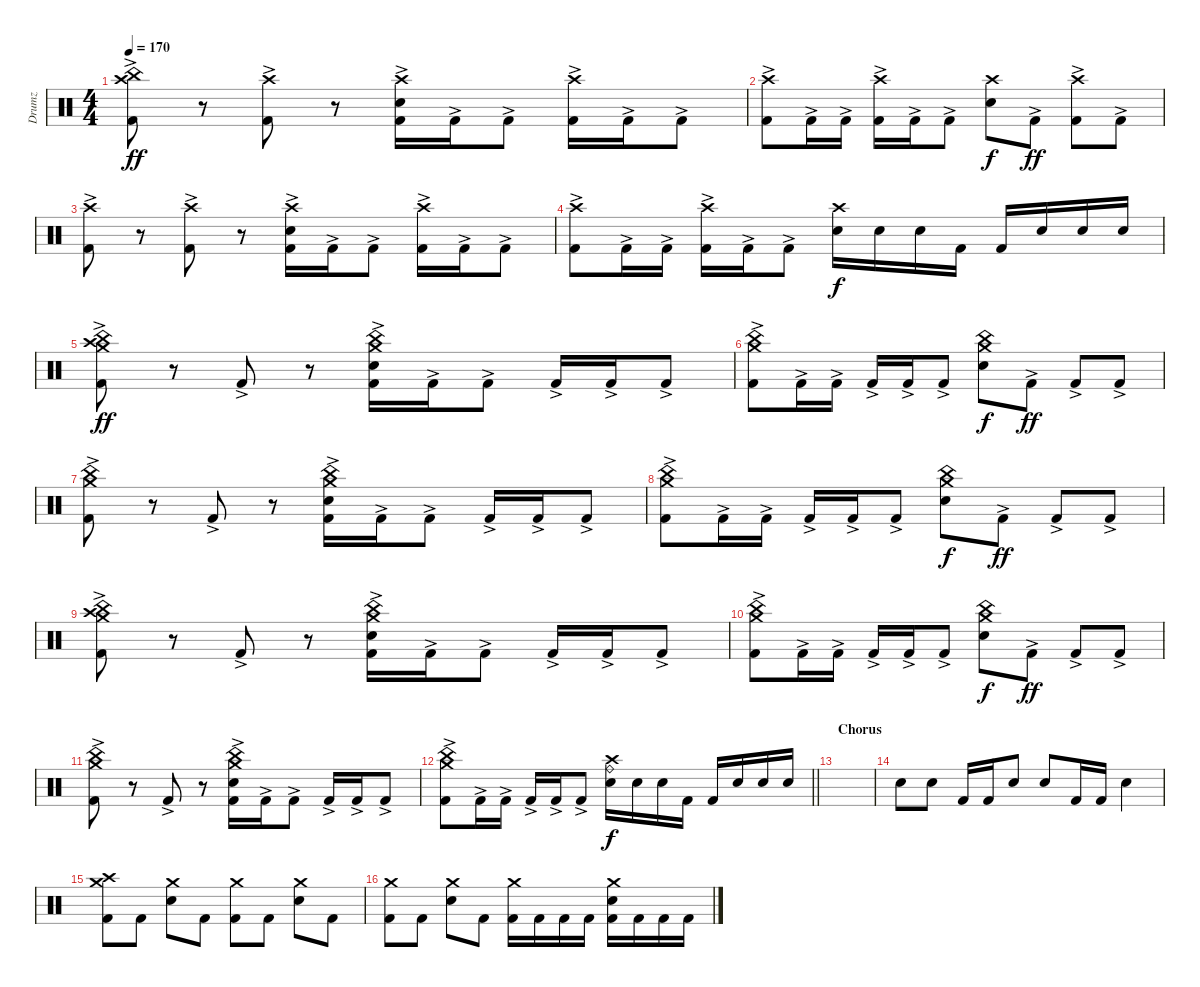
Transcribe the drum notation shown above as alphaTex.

\track ("Drumz" "Drumz") {instrument percussion}
\staff {score}
\articulation defaults
\ts (4 4)
\tempo 170
\clef neutral
\ks c
("China (hit)" "Crash high (hit)" "Kick (hit) 2"{ac}).8{dy ff} r.8 ("Crash high (hit)" "Kick (hit) 2"{ac}).8 r.8 ("Kick (hit) 2"{ac} "Crash high (hit)" "Electric Snare (hit)").16 "Kick (hit) 2"{ac}.16 "Kick (hit) 2"{ac}.8 ("Kick (hit) 2"{ac} "Crash high (hit)").16 "Kick (hit) 2"{ac}.16 "Kick (hit) 2"{ac}.8 |
("Kick (hit) 2"{ac} "Crash high (hit)").8 "Kick (hit) 2"{ac}.16 "Kick (hit) 2"{ac}.16 ("Kick (hit) 2"{ac} "Crash high (hit)").16 "Kick (hit) 2"{ac}.16 "Kick (hit) 2"{ac}.8 ("Crash high (hit)" "Electric Snare (hit)").8{dy f} "Kick (hit) 2"{ac}.8{dy ff} ("Kick (hit) 2"{ac} "Crash high (hit)").8 "Kick (hit) 2"{ac}.8 |
("Crash high (hit)" "Kick (hit) 2"{ac}).8 r.8 ("Crash high (hit)" "Kick (hit) 2"{ac}).8 r.8 ("Kick (hit) 2"{ac} "Crash high (hit)" "Electric Snare (hit)").16 "Kick (hit) 2"{ac}.16 "Kick (hit) 2"{ac}.8 ("Kick (hit) 2"{ac} "Crash high (hit)").16 "Kick (hit) 2"{ac}.16 "Kick (hit) 2"{ac}.8 |
("Kick (hit) 2"{ac} "Crash high (hit)").8 "Kick (hit) 2"{ac}.16 "Kick (hit) 2"{ac}.16 ("Kick (hit) 2"{ac} "Crash high (hit)").16 "Kick (hit) 2"{ac}.16 "Kick (hit) 2"{ac}.8 ("Crash high (hit)" "Electric Snare (hit)").16{dy f} "Electric Snare (hit)".16 "Electric Snare (hit)".16 "Kick (hit) 2".16 "Kick (hit) 2".16 "Electric Snare (hit)".16 "Electric Snare (hit)".16 "Electric Snare (hit)".16 |
("Crash medium (hit)" "Crash high (hit)" "China (hit)" "Kick (hit) 2"{ac}).8{dy ff} r.8 "Kick (hit) 2"{ac}.8 r.8 ("Kick (hit) 2"{ac} "Crash medium (hit)" "Electric Snare (hit)" "China (hit)").16 "Kick (hit) 2"{ac}.16 "Kick (hit) 2"{ac}.8 "Kick (hit) 2"{ac}.16 "Kick (hit) 2"{ac}.16 "Kick (hit) 2"{ac}.8 |
("Kick (hit) 2"{ac} "Crash medium (hit)" "China (hit)").8 "Kick (hit) 2"{ac}.16 "Kick (hit) 2"{ac}.16 "Kick (hit) 2"{ac}.16 "Kick (hit) 2"{ac}.16 "Kick (hit) 2"{ac}.8 ("China (hit)" "Electric Snare (hit)" "Crash medium (hit)").8{dy f} "Kick (hit) 2"{ac}.8{dy ff} "Kick (hit) 2"{ac}.8 "Kick (hit) 2"{ac}.8 |
("Crash medium (hit)" "China (hit)" "Kick (hit) 2"{ac}).8 r.8 "Kick (hit) 2"{ac}.8 r.8 ("Kick (hit) 2"{ac} "China (hit)" "Electric Snare (hit)" "Crash medium (hit)").16 "Kick (hit) 2"{ac}.16 "Kick (hit) 2"{ac}.8 "Kick (hit) 2"{ac}.16 "Kick (hit) 2"{ac}.16 "Kick (hit) 2"{ac}.8 |
("Kick (hit) 2"{ac} "Crash medium (hit)" "China (hit)").8 "Kick (hit) 2"{ac}.16 "Kick (hit) 2"{ac}.16 "Kick (hit) 2"{ac}.16 "Kick (hit) 2"{ac}.16 "Kick (hit) 2"{ac}.8 ("China (hit)" "Electric Snare (hit)" "Crash medium (hit)").8{dy f} "Kick (hit) 2"{ac}.8{dy ff} "Kick (hit) 2"{ac}.8 "Kick (hit) 2"{ac}.8 |
("China (hit)" "Crash high (hit)" "Crash medium (hit)" "Kick (hit) 2"{ac}).8 r.8 "Kick (hit) 2"{ac}.8 r.8 ("Kick (hit) 2"{ac} "Crash medium (hit)" "Electric Snare (hit)" "China (hit)").16 "Kick (hit) 2"{ac}.16 "Kick (hit) 2"{ac}.8 "Kick (hit) 2"{ac}.16 "Kick (hit) 2"{ac}.16 "Kick (hit) 2"{ac}.8 |
("Kick (hit) 2"{ac} "China (hit)" "Crash medium (hit)").8 "Kick (hit) 2"{ac}.16 "Kick (hit) 2"{ac}.16 "Kick (hit) 2"{ac}.16 "Kick (hit) 2"{ac}.16 "Kick (hit) 2"{ac}.8 ("Crash medium (hit)" "Electric Snare (hit)" "China (hit)").8{dy f} "Kick (hit) 2"{ac}.8{dy ff} "Kick (hit) 2"{ac}.8 "Kick (hit) 2"{ac}.8 |
("China (hit)" "Crash medium (hit)" "Kick (hit) 2"{ac}).8 r.8 "Kick (hit) 2"{ac}.8 r.8 ("Kick (hit) 2"{ac} "Crash medium (hit)" "Electric Snare (hit)" "China (hit)").16 "Kick (hit) 2"{ac}.16 "Kick (hit) 2"{ac}.8 "Kick (hit) 2"{ac}.16 "Kick (hit) 2"{ac}.16 "Kick (hit) 2"{ac}.8 |
\barLineRight lightlight
("Kick (hit) 2"{ac} "China (hit)" "Crash medium (hit)").8 "Kick (hit) 2"{ac}.16 "Kick (hit) 2"{ac}.16 "Kick (hit) 2"{ac}.16 "Kick (hit) 2"{ac}.16 "Kick (hit) 2"{ac}.8 ("Crash high (hit)" "Electric Snare (hit)" "Ride (bell)").16{dy f} "Electric Snare (hit)".16 "Electric Snare (hit)".16 "Kick (hit) 2".16 "Kick (hit) 2".16 "Electric Snare (hit)".16 "Electric Snare (hit)".16 "Electric Snare (hit)".16 |
\section ("" "Chorus")
|
"Electric Snare (hit)".8 "Electric Snare (hit)".8 "Kick (hit) 2".16 "Kick (hit) 2".16 "Electric Snare (hit)".8 "Electric Snare (hit)".8 "Kick (hit) 2".16 "Kick (hit) 2".16 "Electric Snare (hit)".4 |
("Crash high (hit)" "Kick (hit) 2" "Crash medium (hit)").8 "Kick (hit) 2".8 ("Electric Snare (hit)" "Crash medium (hit)").8 "Kick (hit) 2".8 ("Kick (hit) 2" "Crash medium (hit)").8 "Kick (hit) 2".8 ("Electric Snare (hit)" "Crash medium (hit)").8 "Kick (hit) 2".8 |
("Kick (hit) 2" "Crash medium (hit)").8 "Kick (hit) 2".8 ("Electric Snare (hit)" "Crash medium (hit)").8 "Kick (hit) 2".8 ("Kick (hit) 2" "Crash medium (hit)").16 "Kick (hit) 2".16 "Kick (hit) 2".16 "Kick (hit) 2".16 ("Electric Snare (hit)" "Crash medium (hit)" "Kick (hit) 2").16 "Kick (hit) 2".16 "Kick (hit) 2".16 "Kick (hit) 2".16
